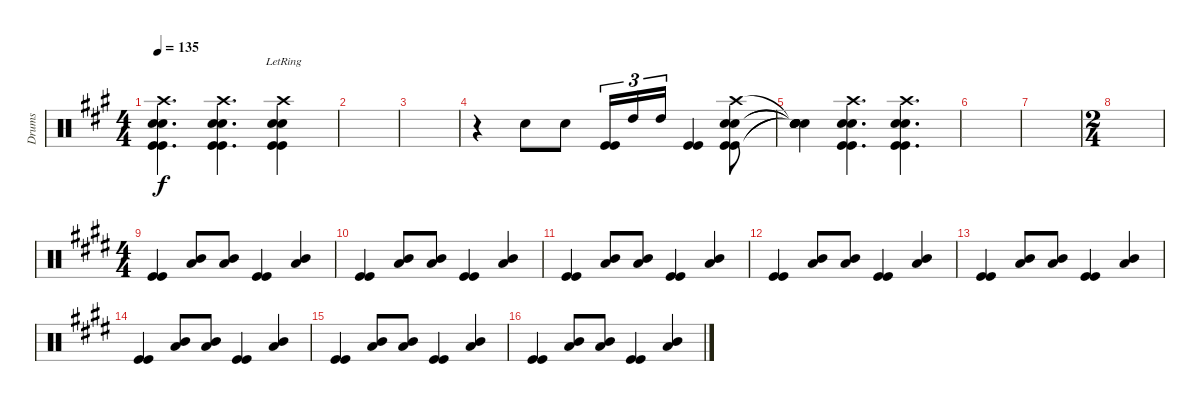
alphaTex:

\track ("Drums" "Drums") {instrument percussion}
\staff {score}
\articulation defaults
\ts (4 4)
\tempo 135
\clef neutral
\ks a
("Crash high (hit)" "Snare (hit) 2" "Snare (hit) 2" "Kick (hit)" "Kick (hit)").4{d dy f} ("Crash high (hit)" "Snare (hit) 2" "Snare (hit) 2" "Kick (hit)" "Kick (hit)").4{d} ("Crash high (hit)"{lr} "Snare (hit) 2" "Snare (hit) 2" "Kick (hit)" "Kick (hit)").4 |
|
|
r.4 "Snare (hit) 2".8 "Snare (hit) 2".8 ("Kick (hit)" "Kick (hit)").16{tu (3 2)} "High Tom (hit)".16{tu (3 2)} "High Tom (hit)".16{tu (3 2)} ("Kick (hit)" "Kick (hit)").4 ("Crash high (hit)" "Snare (hit) 2" "Snare (hit) 2" "Kick (hit)" "Kick (hit)").8 |
("Snare (hit)"{t} "Snare (hit)"{t} "Snare (hit)"{t} "Snare (hit)"{t} "Snare (hit)"{t}).4 ("Crash high (hit)" "Snare (hit) 2" "Snare (hit) 2" "Kick (hit)" "Kick (hit)").4{d} ("Crash high (hit)" "Snare (hit) 2" "Snare (hit) 2" "Kick (hit)" "Kick (hit)").4{d} |
|
|
\ts (2 4)
|
\ts (4 4)
\ks e
("Kick (hit)" "Kick (hit)").4 ("Low Tom (hit)" "Mid Tom (hit)").8 ("Low Tom (hit)" "Mid Tom (hit)").8 ("Kick (hit)" "Kick (hit)").4 ("Low Tom (hit)" "Mid Tom (hit)").4 |
("Kick (hit)" "Kick (hit)").4 ("Low Tom (hit)" "Mid Tom (hit)").8 ("Low Tom (hit)" "Mid Tom (hit)").8 ("Kick (hit)" "Kick (hit)").4 ("Low Tom (hit)" "Mid Tom (hit)").4 |
("Kick (hit)" "Kick (hit)").4 ("Low Tom (hit)" "Mid Tom (hit)").8 ("Low Tom (hit)" "Mid Tom (hit)").8 ("Kick (hit)" "Kick (hit)").4 ("Low Tom (hit)" "Mid Tom (hit)").4 |
("Kick (hit)" "Kick (hit)").4 ("Low Tom (hit)" "Mid Tom (hit)").8 ("Low Tom (hit)" "Mid Tom (hit)").8 ("Kick (hit)" "Kick (hit)").4 ("Low Tom (hit)" "Mid Tom (hit)").4 |
("Kick (hit)" "Kick (hit)").4 ("Low Tom (hit)" "Mid Tom (hit)").8 ("Low Tom (hit)" "Mid Tom (hit)").8 ("Kick (hit)" "Kick (hit)").4 ("Low Tom (hit)" "Mid Tom (hit)").4 |
("Kick (hit)" "Kick (hit)").4 ("Low Tom (hit)" "Mid Tom (hit)").8 ("Low Tom (hit)" "Mid Tom (hit)").8 ("Kick (hit)" "Kick (hit)").4 ("Low Tom (hit)" "Mid Tom (hit)").4 |
("Kick (hit)" "Kick (hit)").4 ("Low Tom (hit)" "Mid Tom (hit)").8 ("Low Tom (hit)" "Mid Tom (hit)").8 ("Kick (hit)" "Kick (hit)").4 ("Low Tom (hit)" "Mid Tom (hit)").4 |
("Kick (hit)" "Kick (hit)").4 ("Low Tom (hit)" "Mid Tom (hit)").8 ("Low Tom (hit)" "Mid Tom (hit)").8 ("Kick (hit)" "Kick (hit)").4 ("Low Tom (hit)" "Mid Tom (hit)").4
